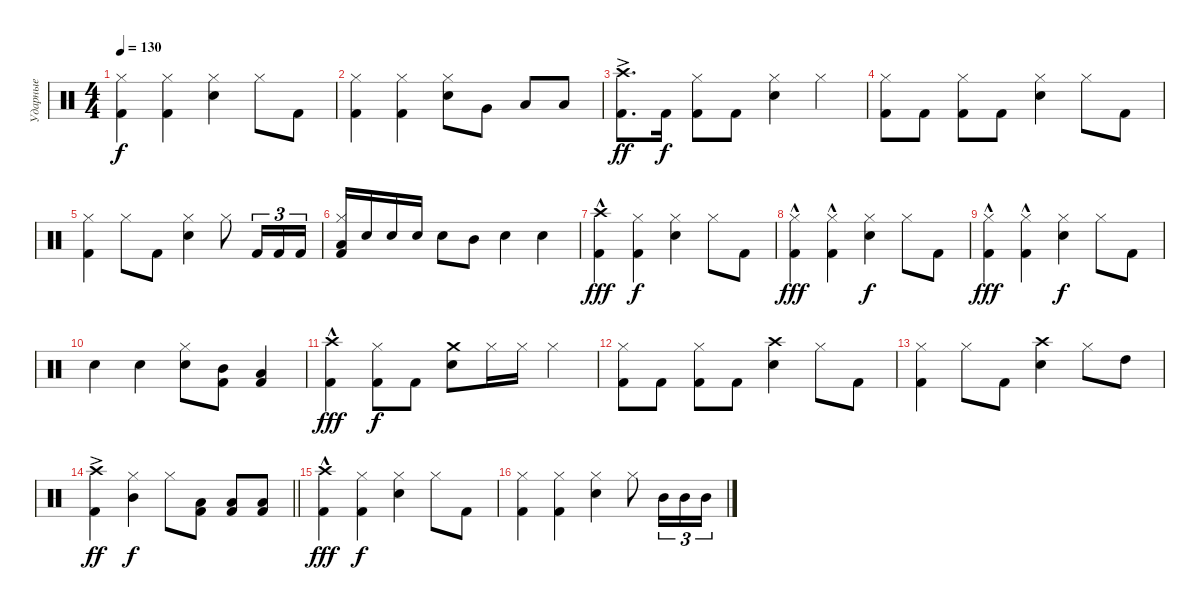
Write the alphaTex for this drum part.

\track ("Ударные" "Ударные") {instrument percussion}
\staff {score}
\articulation defaults
\ts (4 4)
\tempo 130
\clef neutral
\ks c
("Kick (hit) 2" "Hi-Hat (closed)").4{dy f} ("Kick (hit) 2" "Hi-Hat (closed)").4 ("Snare (hit) 2" "Hi-Hat (closed)").4 "Hi-Hat (closed)".8 "Kick (hit) 2".8 |
("Kick (hit) 2" "Hi-Hat (closed)").4 ("Kick (hit) 2" "Hi-Hat (closed)").4 ("Snare (hit) 2" "Hi-Hat (closed)").8 "Very Low Tom (hit)".8 "Low Floor Tom (hit)".8 "Low Floor Tom (hit)".8 |
("Kick (hit) 2" "Crash high (hit)"{ac}).8{d dy ff} "Kick (hit) 2".16{dy f} ("Kick (hit) 2" "Hi-Hat (closed)").8 "Kick (hit) 2".8 ("Snare (hit) 2" "Hi-Hat (closed)").4 "Hi-Hat (closed)".4 |
("Kick (hit) 2" "Hi-Hat (closed)").8 "Kick (hit) 2".8 ("Kick (hit) 2" "Hi-Hat (closed)").8 "Kick (hit) 2".8 ("Snare (hit) 2" "Hi-Hat (closed)").4 "Hi-Hat (closed)".8 "Kick (hit) 2".8 |
("Kick (hit) 2" "Hi-Hat (closed)").4 "Hi-Hat (closed)".8 "Kick (hit) 2".8 ("Snare (hit) 2" "Hi-Hat (closed)").4 "Hi-Hat (closed)".8 "Kick (hit) 2".16{tu (3 2)} "Kick (hit) 2".16{tu (3 2)} "Kick (hit) 2".16{tu (3 2)} |
("Kick (hit) 2" "Low Tom (hit)" "Hi-Hat (closed)").16 "Snare (hit) 2".16 "Snare (hit) 2".16 "Snare (hit) 2".16 "Snare (hit) 2".8 "Mid Tom (hit)".8 "Snare (hit) 2".4 "Snare (hit) 2".4 |
("Kick (hit) 2" "Crash high (hit)"{hac}).4{dy fff} ("Kick (hit) 2" "Hi-Hat (closed)").4{dy f} ("Snare (hit) 2" "Hi-Hat (closed)").4 "Hi-Hat (closed)".8 "Kick (hit) 2".8 |
("Kick (hit) 2"{hac} "Hi-Hat (closed)").4{dy fff} ("Kick (hit) 2"{hac} "Hi-Hat (closed)").4 ("Snare (hit) 2" "Hi-Hat (closed)").4{dy f} "Hi-Hat (closed)".8 "Kick (hit) 2".8 |
("Kick (hit) 2"{hac} "Hi-Hat (closed)").4{dy fff} ("Kick (hit) 2"{hac} "Hi-Hat (closed)").4 ("Snare (hit) 2" "Hi-Hat (closed)").4{dy f} "Hi-Hat (closed)".8 "Kick (hit) 2".8 |
"Electric Snare (hit)".4 "Electric Snare (hit)".4 ("Snare (hit) 2" "Hi-Hat (closed)").8 ("Kick (hit) 2" "Mid Tom (hit)").8 ("Kick (hit) 2" "Low Floor Tom (hit)").4 |
("Kick (hit) 2" "Crash high (hit)"{hac}).4{dy fff} ("Kick (hit) 2" "Hi-Hat (closed)").8{dy f} "Kick (hit) 2".8 ("Snare (hit) 2" "Crash medium (hit)").8 "Hi-Hat (closed)".16 "Hi-Hat (closed)".16 "Hi-Hat (closed)".4 |
("Kick (hit) 2" "Hi-Hat (closed)").8 "Kick (hit) 2".8 ("Kick (hit) 2" "Hi-Hat (closed)").8 "Kick (hit) 2".8 ("Snare (hit) 2" "Crash high (hit)").4 "Hi-Hat (closed)".8 "Kick (hit) 2".8 |
("Kick (hit) 2" "Hi-Hat (closed)").4 "Hi-Hat (closed)".8 "Kick (hit) 2".8 ("Snare (hit) 2" "Crash high (hit)").4 "Hi-Hat (closed)".8 "High Tom (hit)".8 |
\barLineRight lightlight
("Kick (hit) 2" "Crash high (hit)"{ac}).4{dy ff} ("Mid Tom (hit)" "Hi-Hat (closed)").4{dy f} "Hi-Hat (closed)".8 ("Kick (hit) 2" "Low Floor Tom (hit)").8 ("Kick (hit) 2" "Low Floor Tom (hit)").8 ("Kick (hit) 2" "Low Floor Tom (hit)").8 |
("Kick (hit) 2" "Crash high (hit)"{hac}).4{dy fff} ("Kick (hit) 2" "Hi-Hat (closed)").4{dy f} ("Snare (hit) 2" "Hi-Hat (closed)").4 "Hi-Hat (closed)".8 "Kick (hit) 2".8 |
("Kick (hit) 2" "Hi-Hat (closed)").4 ("Kick (hit) 2" "Hi-Hat (closed)").4 ("Snare (hit) 2" "Hi-Hat (closed)").4 "Hi-Hat (closed)".8 "Mid Tom (hit)".16{tu (3 2)} "Mid Tom (hit)".16{tu (3 2)} "Mid Tom (hit)".16{tu (3 2)}
